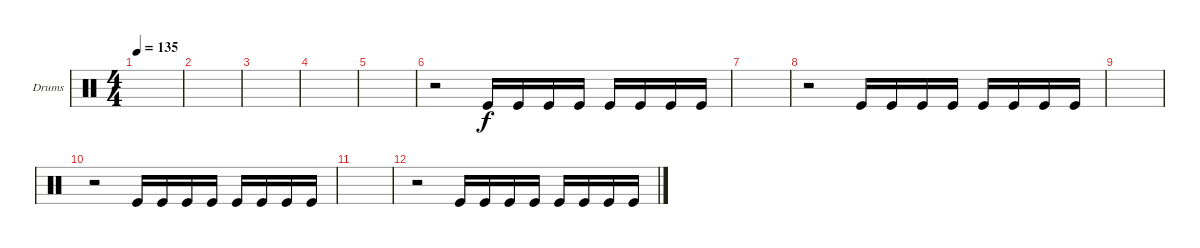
\defaultSystemsLayout 4
\bracketExtendMode groupsimilarinstruments
\firstSystemTrackNameOrientation horizontal
\otherSystemsTrackNameOrientation horizontal
\track ("Background-Bass" "Drums") {instrument percussion}
\staff {score}
\articulation defaults
\ts (4 4)
\tempo 135
\clef neutral
\scale
0.333333
\ks c
|
\scale
0.333333 |
\scale
0.333333 |
\scale
0.333333 |
\scale
0.333333 |
\scale
0.333333 r.2 "Kick (hit)".16 "Kick (hit)".16 "Kick (hit)".16 "Kick (hit)".16 "Kick (hit)".16 "Kick (hit)".16 "Kick (hit)".16 "Kick (hit)".16 |
\scale
0.333333 |
\scale
0.333333 r.2 "Kick (hit)".16 "Kick (hit)".16 "Kick (hit)".16 "Kick (hit)".16 "Kick (hit)".16 "Kick (hit)".16 "Kick (hit)".16 "Kick (hit)".16 |
\scale
0.333333 |
\scale
0.333333 r.2 "Kick (hit)".16 "Kick (hit)".16 "Kick (hit)".16 "Kick (hit)".16 "Kick (hit)".16 "Kick (hit)".16 "Kick (hit)".16 "Kick (hit)".16 |
\scale
0.333333 |
\scale
0.333333 r.2 "Kick (hit)".16 "Kick (hit)".16 "Kick (hit)".16 "Kick (hit)".16 "Kick (hit)".16 "Kick (hit)".16 "Kick (hit)".16 "Kick (hit)".16 |
\scale
0.333333 |
\scale
0.333333 |
\scale
0.333333 |
\scale
0.333333
